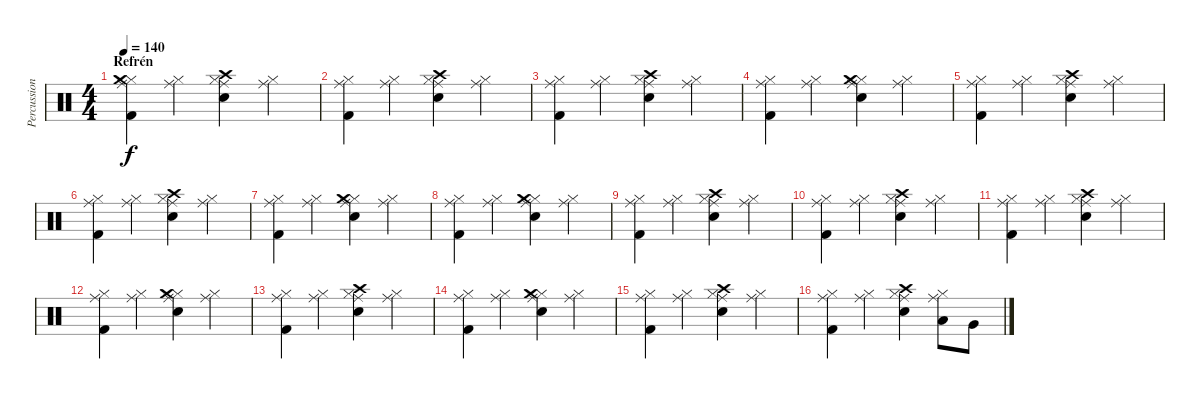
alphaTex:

\track ("Percussion" "Percussion") {instrument percussion}
\staff {score}
\articulation defaults
\ts (4 4)
\section ("" "Refrén")
\tempo 140
\clef neutral
\ks c
("Hi-Hat (closed)" "Crash medium (hit)" "Kick (hit) 2" "Ride (middle)").4{dy f} ("Hi-Hat (closed)" "Ride (middle)").4 ("Hi-Hat (closed)" "Crash high (hit)" "Electric Snare (hit)" "Ride (middle)").4 ("Hi-Hat (closed)" "Ride (middle)").4 |
("Hi-Hat (closed)" "Kick (hit) 2" "Ride (middle)").4 ("Hi-Hat (closed)" "Ride (middle)").4 ("Hi-Hat (closed)" "Crash high (hit)" "Electric Snare (hit)" "Ride (middle)").4 ("Hi-Hat (closed)" "Ride (middle)").4 |
("Hi-Hat (closed)" "Kick (hit) 2" "Ride (middle)").4 ("Hi-Hat (closed)" "Ride (middle)").4 ("Hi-Hat (closed)" "Crash high (hit)" "Electric Snare (hit)" "Ride (middle)").4 ("Hi-Hat (closed)" "Ride (middle)").4 |
("Hi-Hat (closed)" "Kick (hit) 2" "Ride (middle)").4 ("Hi-Hat (closed)" "Ride (middle)").4 ("Hi-Hat (closed)" "Crash medium (hit)" "Electric Snare (hit)" "Ride (middle)").4 ("Hi-Hat (closed)" "Ride (middle)").4 |
("Hi-Hat (closed)" "Kick (hit) 2" "Ride (middle)").4 ("Hi-Hat (closed)" "Ride (middle)").4 ("Hi-Hat (closed)" "Crash high (hit)" "Electric Snare (hit)" "Ride (middle)").4 ("Hi-Hat (closed)" "Ride (middle)").4 |
("Hi-Hat (closed)" "Kick (hit) 2" "Ride (middle)").4 ("Hi-Hat (closed)" "Ride (middle)").4 ("Hi-Hat (closed)" "Crash high (hit)" "Electric Snare (hit)" "Ride (middle)").4 ("Hi-Hat (closed)" "Ride (middle)").4 |
("Hi-Hat (closed)" "Kick (hit) 2" "Ride (middle)").4 ("Hi-Hat (closed)" "Ride (middle)").4 ("Hi-Hat (closed)" "Crash medium (hit)" "Electric Snare (hit)" "Ride (middle)").4 ("Hi-Hat (closed)" "Ride (middle)").4 |
("Hi-Hat (closed)" "Kick (hit) 2" "Ride (middle)").4 ("Hi-Hat (closed)" "Ride (middle)").4 ("Hi-Hat (closed)" "Crash medium (hit)" "Electric Snare (hit)" "Ride (middle)").4 ("Hi-Hat (closed)" "Ride (middle)").4 |
("Hi-Hat (closed)" "Kick (hit) 2" "Ride (middle)").4 ("Hi-Hat (closed)" "Ride (middle)").4 ("Hi-Hat (closed)" "Crash high (hit)" "Electric Snare (hit)" "Ride (middle)").4 ("Hi-Hat (closed)" "Ride (middle)").4 |
("Hi-Hat (closed)" "Kick (hit) 2" "Ride (middle)").4 ("Hi-Hat (closed)" "Ride (middle)").4 ("Hi-Hat (closed)" "Crash high (hit)" "Electric Snare (hit)" "Ride (middle)").4 ("Hi-Hat (closed)" "Ride (middle)").4 |
("Hi-Hat (closed)" "Kick (hit) 2" "Ride (middle)").4 ("Hi-Hat (closed)" "Ride (middle)").4 ("Hi-Hat (closed)" "Crash high (hit)" "Electric Snare (hit)" "Ride (middle)").4 ("Hi-Hat (closed)" "Ride (middle)").4 |
("Hi-Hat (closed)" "Kick (hit) 2" "Ride (middle)").4 ("Hi-Hat (closed)" "Ride (middle)").4 ("Hi-Hat (closed)" "Crash medium (hit)" "Electric Snare (hit)" "Ride (middle)").4 ("Hi-Hat (closed)" "Ride (middle)").4 |
("Hi-Hat (closed)" "Kick (hit) 2" "Ride (middle)").4 ("Hi-Hat (closed)" "Ride (middle)").4 ("Hi-Hat (closed)" "Crash high (hit)" "Electric Snare (hit)" "Ride (middle)").4 ("Hi-Hat (closed)" "Ride (middle)").4 |
("Hi-Hat (closed)" "Kick (hit) 2" "Ride (middle)").4 ("Hi-Hat (closed)" "Ride (middle)").4 ("Hi-Hat (closed)" "Crash medium (hit)" "Electric Snare (hit)" "Ride (middle)").4 ("Hi-Hat (closed)" "Ride (middle)").4 |
("Hi-Hat (closed)" "Kick (hit) 2" "Ride (middle)").4 ("Hi-Hat (closed)" "Ride (middle)").4 ("Hi-Hat (closed)" "Crash high (hit)" "Electric Snare (hit)" "Ride (middle)").4 ("Hi-Hat (closed)" "Ride (middle)").4 |
("Hi-Hat (closed)" "Kick (hit) 2" "Ride (middle)").4 ("Hi-Hat (closed)" "Ride (middle)").4 ("Hi-Hat (closed)" "Crash high (hit)" "Electric Snare (hit)" "Ride (middle)").4 ("Hi-Hat (closed)" "Low Tom (hit)" "Ride (middle)").8 "Very Low Tom (hit)".8
